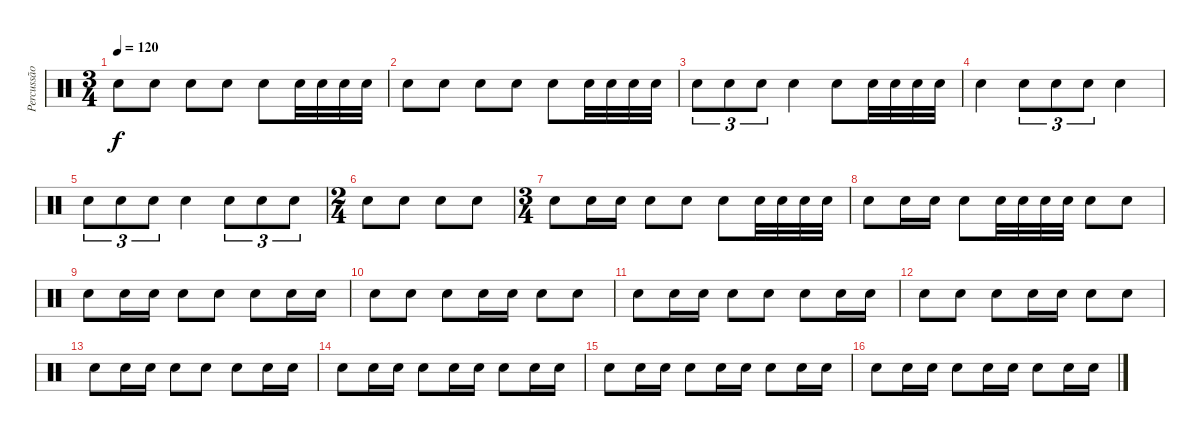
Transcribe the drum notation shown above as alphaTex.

\track ("Percussão" "Percussão") {instrument percussion}
\staff {score}
\articulation defaults
\ts (3 4)
\tempo 120
\clef neutral
\ks c "Electric Snare (hit)".8{dy f} "Electric Snare (hit)".8 "Electric Snare (hit)".8 "Electric Snare (hit)".8 "Electric Snare (hit)".8 "Electric Snare (hit)".32 "Electric Snare (hit)".32 "Electric Snare (hit)".32 "Electric Snare (hit)".32
|
"Electric Snare (hit)".8 "Electric Snare (hit)".8 "Electric Snare (hit)".8 "Electric Snare (hit)".8 "Electric Snare (hit)".8 "Electric Snare (hit)".32 "Electric Snare (hit)".32 "Electric Snare (hit)".32 "Electric Snare (hit)".32 |
"Electric Snare (hit)".8{tu (3 2)} "Electric Snare (hit)".8{tu (3 2)} "Electric Snare (hit)".8{tu (3 2)} "Electric Snare (hit)".4 "Electric Snare (hit)".8 "Electric Snare (hit)".32 "Electric Snare (hit)".32 "Electric Snare (hit)".32 "Electric Snare (hit)".32 |
"Electric Snare (hit)".4 "Electric Snare (hit)".8{tu (3 2)} "Electric Snare (hit)".8{tu (3 2)} "Electric Snare (hit)".8{tu (3 2)} "Electric Snare (hit)".4 |
"Electric Snare (hit)".8{tu (3 2)} "Electric Snare (hit)".8{tu (3 2)} "Electric Snare (hit)".8{tu (3 2)} "Electric Snare (hit)".4 "Electric Snare (hit)".8{tu (3 2)} "Electric Snare (hit)".8{tu (3 2)} "Electric Snare (hit)".8{tu (3 2)} |
\ts (2 4)
"Electric Snare (hit)".8 "Electric Snare (hit)".8 "Electric Snare (hit)".8 "Electric Snare (hit)".8 |
\ts (3 4)
"Electric Snare (hit)".8 "Electric Snare (hit)".16 "Electric Snare (hit)".16 "Electric Snare (hit)".8 "Electric Snare (hit)".8 "Electric Snare (hit)".8 "Electric Snare (hit)".32 "Electric Snare (hit)".32 "Electric Snare (hit)".32 "Electric Snare (hit)".32 |
"Electric Snare (hit)".8 "Electric Snare (hit)".16 "Electric Snare (hit)".16 "Electric Snare (hit)".8 "Electric Snare (hit)".32 "Electric Snare (hit)".32 "Electric Snare (hit)".32 "Electric Snare (hit)".32 "Electric Snare (hit)".8 "Electric Snare (hit)".8 |
"Electric Snare (hit)".8 "Electric Snare (hit)".16 "Electric Snare (hit)".16 "Electric Snare (hit)".8 "Electric Snare (hit)".8 "Electric Snare (hit)".8 "Electric Snare (hit)".16 "Electric Snare (hit)".16 |
"Electric Snare (hit)".8 "Electric Snare (hit)".8 "Electric Snare (hit)".8 "Electric Snare (hit)".16 "Electric Snare (hit)".16 "Electric Snare (hit)".8 "Electric Snare (hit)".8 |
"Electric Snare (hit)".8 "Electric Snare (hit)".16 "Electric Snare (hit)".16 "Electric Snare (hit)".8 "Electric Snare (hit)".8 "Electric Snare (hit)".8 "Electric Snare (hit)".16 "Electric Snare (hit)".16 |
"Electric Snare (hit)".8 "Electric Snare (hit)".8 "Electric Snare (hit)".8 "Electric Snare (hit)".16 "Electric Snare (hit)".16 "Electric Snare (hit)".8 "Electric Snare (hit)".8 |
"Electric Snare (hit)".8 "Electric Snare (hit)".16 "Electric Snare (hit)".16 "Electric Snare (hit)".8 "Electric Snare (hit)".8 "Electric Snare (hit)".8 "Electric Snare (hit)".16 "Electric Snare (hit)".16 |
"Electric Snare (hit)".8 "Electric Snare (hit)".16 "Electric Snare (hit)".16 "Electric Snare (hit)".8 "Electric Snare (hit)".16 "Electric Snare (hit)".16 "Electric Snare (hit)".8 "Electric Snare (hit)".16 "Electric Snare (hit)".16 |
"Electric Snare (hit)".8 "Electric Snare (hit)".16 "Electric Snare (hit)".16 "Electric Snare (hit)".8 "Electric Snare (hit)".16 "Electric Snare (hit)".16 "Electric Snare (hit)".8 "Electric Snare (hit)".16 "Electric Snare (hit)".16 |
"Electric Snare (hit)".8 "Electric Snare (hit)".16 "Electric Snare (hit)".16 "Electric Snare (hit)".8 "Electric Snare (hit)".16 "Electric Snare (hit)".16 "Electric Snare (hit)".8 "Electric Snare (hit)".16 "Electric Snare (hit)".16
